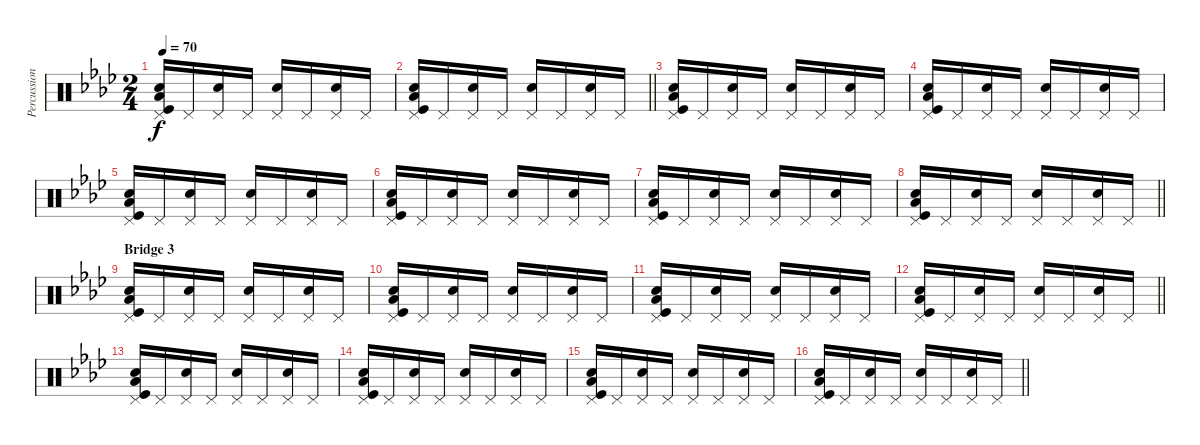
\track ("Percussions" "Percussion") {instrument percussion}
\staff {score}
\articulation defaults
\ts (2 4)
\tempo 70
\clef neutral
\ks fminor
("Electric Snare (hit)" "Kick (hit)" "Pedal Hi-Hat (hit)" "Low Floor Tom (hit)").16{dy f} "Pedal Hi-Hat (hit)".16 ("Electric Snare (hit)" "Pedal Hi-Hat (hit)").16 "Pedal Hi-Hat (hit)".16 ("Electric Snare (hit)" "Pedal Hi-Hat (hit)").16 "Pedal Hi-Hat (hit)".16 ("Electric Snare (hit)" "Pedal Hi-Hat (hit)").16 "Pedal Hi-Hat (hit)".16 |
\barLineRight lightlight
("Electric Snare (hit)" "Kick (hit)" "Pedal Hi-Hat (hit)" "Low Floor Tom (hit)").16 "Pedal Hi-Hat (hit)".16 ("Electric Snare (hit)" "Pedal Hi-Hat (hit)").16 "Pedal Hi-Hat (hit)".16 ("Electric Snare (hit)" "Pedal Hi-Hat (hit)").16 "Pedal Hi-Hat (hit)".16 ("Electric Snare (hit)" "Pedal Hi-Hat (hit)").16 "Pedal Hi-Hat (hit)".16 |
("Electric Snare (hit)" "Kick (hit)" "Pedal Hi-Hat (hit)" "Low Floor Tom (hit)").16 "Pedal Hi-Hat (hit)".16 ("Electric Snare (hit)" "Pedal Hi-Hat (hit)").16 "Pedal Hi-Hat (hit)".16 ("Electric Snare (hit)" "Pedal Hi-Hat (hit)").16 "Pedal Hi-Hat (hit)".16 ("Electric Snare (hit)" "Pedal Hi-Hat (hit)").16 "Pedal Hi-Hat (hit)".16 |
("Electric Snare (hit)" "Kick (hit)" "Pedal Hi-Hat (hit)" "Low Floor Tom (hit)").16 "Pedal Hi-Hat (hit)".16 ("Electric Snare (hit)" "Pedal Hi-Hat (hit)").16 "Pedal Hi-Hat (hit)".16 ("Electric Snare (hit)" "Pedal Hi-Hat (hit)").16 "Pedal Hi-Hat (hit)".16 ("Electric Snare (hit)" "Pedal Hi-Hat (hit)").16 "Pedal Hi-Hat (hit)".16 |
("Electric Snare (hit)" "Kick (hit)" "Pedal Hi-Hat (hit)" "Low Floor Tom (hit)").16 "Pedal Hi-Hat (hit)".16 ("Electric Snare (hit)" "Pedal Hi-Hat (hit)").16 "Pedal Hi-Hat (hit)".16 ("Electric Snare (hit)" "Pedal Hi-Hat (hit)").16 "Pedal Hi-Hat (hit)".16 ("Electric Snare (hit)" "Pedal Hi-Hat (hit)").16 "Pedal Hi-Hat (hit)".16 |
("Electric Snare (hit)" "Kick (hit)" "Pedal Hi-Hat (hit)" "Low Floor Tom (hit)").16 "Pedal Hi-Hat (hit)".16 ("Electric Snare (hit)" "Pedal Hi-Hat (hit)").16 "Pedal Hi-Hat (hit)".16 ("Electric Snare (hit)" "Pedal Hi-Hat (hit)").16 "Pedal Hi-Hat (hit)".16 ("Electric Snare (hit)" "Pedal Hi-Hat (hit)").16 "Pedal Hi-Hat (hit)".16 |
("Electric Snare (hit)" "Kick (hit)" "Pedal Hi-Hat (hit)" "Low Floor Tom (hit)").16 "Pedal Hi-Hat (hit)".16 ("Electric Snare (hit)" "Pedal Hi-Hat (hit)").16 "Pedal Hi-Hat (hit)".16 ("Electric Snare (hit)" "Pedal Hi-Hat (hit)").16 "Pedal Hi-Hat (hit)".16 ("Electric Snare (hit)" "Pedal Hi-Hat (hit)").16 "Pedal Hi-Hat (hit)".16 |
\barLineRight lightlight
("Electric Snare (hit)" "Kick (hit)" "Pedal Hi-Hat (hit)" "Low Floor Tom (hit)").16 "Pedal Hi-Hat (hit)".16 ("Electric Snare (hit)" "Pedal Hi-Hat (hit)").16 "Pedal Hi-Hat (hit)".16 ("Electric Snare (hit)" "Pedal Hi-Hat (hit)").16 "Pedal Hi-Hat (hit)".16 ("Electric Snare (hit)" "Pedal Hi-Hat (hit)").16 "Pedal Hi-Hat (hit)".16 |
\section ("" "Bridge 3")
("Electric Snare (hit)" "Kick (hit)" "Pedal Hi-Hat (hit)" "Low Floor Tom (hit)").16 "Pedal Hi-Hat (hit)".16 ("Electric Snare (hit)" "Pedal Hi-Hat (hit)").16 "Pedal Hi-Hat (hit)".16 ("Electric Snare (hit)" "Pedal Hi-Hat (hit)").16 "Pedal Hi-Hat (hit)".16 ("Electric Snare (hit)" "Pedal Hi-Hat (hit)").16 "Pedal Hi-Hat (hit)".16 |
("Electric Snare (hit)" "Kick (hit)" "Pedal Hi-Hat (hit)" "Low Floor Tom (hit)").16 "Pedal Hi-Hat (hit)".16 ("Electric Snare (hit)" "Pedal Hi-Hat (hit)").16 "Pedal Hi-Hat (hit)".16 ("Electric Snare (hit)" "Pedal Hi-Hat (hit)").16 "Pedal Hi-Hat (hit)".16 ("Electric Snare (hit)" "Pedal Hi-Hat (hit)").16 "Pedal Hi-Hat (hit)".16 |
("Electric Snare (hit)" "Kick (hit)" "Pedal Hi-Hat (hit)" "Low Floor Tom (hit)").16 "Pedal Hi-Hat (hit)".16 ("Electric Snare (hit)" "Pedal Hi-Hat (hit)").16 "Pedal Hi-Hat (hit)".16 ("Electric Snare (hit)" "Pedal Hi-Hat (hit)").16 "Pedal Hi-Hat (hit)".16 ("Electric Snare (hit)" "Pedal Hi-Hat (hit)").16 "Pedal Hi-Hat (hit)".16 |
\barLineRight lightlight
("Electric Snare (hit)" "Kick (hit)" "Pedal Hi-Hat (hit)" "Low Floor Tom (hit)").16 "Pedal Hi-Hat (hit)".16 ("Electric Snare (hit)" "Pedal Hi-Hat (hit)").16 "Pedal Hi-Hat (hit)".16 ("Electric Snare (hit)" "Pedal Hi-Hat (hit)").16 "Pedal Hi-Hat (hit)".16 ("Electric Snare (hit)" "Pedal Hi-Hat (hit)").16 "Pedal Hi-Hat (hit)".16 |
("Electric Snare (hit)" "Kick (hit)" "Pedal Hi-Hat (hit)" "Low Floor Tom (hit)").16 "Pedal Hi-Hat (hit)".16 ("Electric Snare (hit)" "Pedal Hi-Hat (hit)").16 "Pedal Hi-Hat (hit)".16 ("Electric Snare (hit)" "Pedal Hi-Hat (hit)").16 "Pedal Hi-Hat (hit)".16 ("Electric Snare (hit)" "Pedal Hi-Hat (hit)").16 "Pedal Hi-Hat (hit)".16 |
("Electric Snare (hit)" "Kick (hit)" "Pedal Hi-Hat (hit)" "Low Floor Tom (hit)").16 "Pedal Hi-Hat (hit)".16 ("Electric Snare (hit)" "Pedal Hi-Hat (hit)").16 "Pedal Hi-Hat (hit)".16 ("Electric Snare (hit)" "Pedal Hi-Hat (hit)").16 "Pedal Hi-Hat (hit)".16 ("Electric Snare (hit)" "Pedal Hi-Hat (hit)").16 "Pedal Hi-Hat (hit)".16 |
("Electric Snare (hit)" "Kick (hit)" "Pedal Hi-Hat (hit)" "Low Floor Tom (hit)").16 "Pedal Hi-Hat (hit)".16 ("Electric Snare (hit)" "Pedal Hi-Hat (hit)").16 "Pedal Hi-Hat (hit)".16 ("Electric Snare (hit)" "Pedal Hi-Hat (hit)").16 "Pedal Hi-Hat (hit)".16 ("Electric Snare (hit)" "Pedal Hi-Hat (hit)").16 "Pedal Hi-Hat (hit)".16 |
\barLineRight lightlight
("Electric Snare (hit)" "Kick (hit)" "Pedal Hi-Hat (hit)" "Low Floor Tom (hit)").16 "Pedal Hi-Hat (hit)".16 ("Electric Snare (hit)" "Pedal Hi-Hat (hit)").16 "Pedal Hi-Hat (hit)".16 ("Electric Snare (hit)" "Pedal Hi-Hat (hit)").16 "Pedal Hi-Hat (hit)".16 ("Electric Snare (hit)" "Pedal Hi-Hat (hit)").16 "Pedal Hi-Hat (hit)".16
